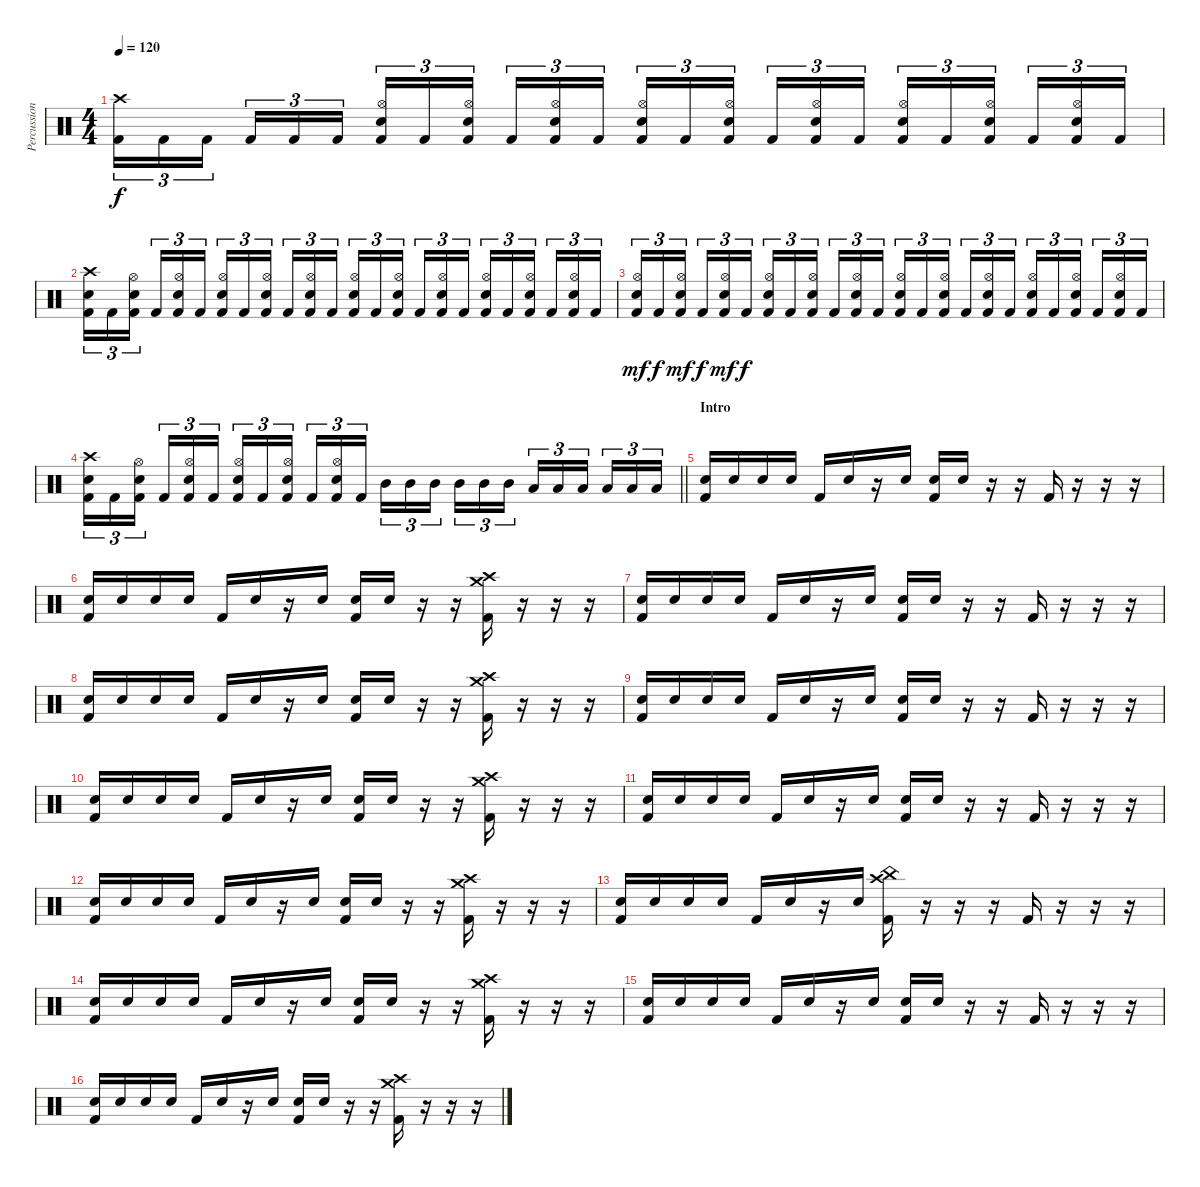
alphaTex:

\track ("Percussion" "Percussion") {instrument percussion}
\staff {score}
\articulation defaults
\ts (4 4)
\tempo 120
\clef neutral
\ks c
("Crash high (hit)" "Kick (hit) 2").16{tu (3 2) dy f} "Kick (hit) 2".16{tu (3 2)} "Kick (hit) 2".16{tu (3 2) beam splitsecondary} "Kick (hit) 2".16{tu (3 2)} "Kick (hit) 2".16{tu (3 2)} "Kick (hit) 2".16{tu (3 2)} ("Hi-Hat (open)" "Snare (hit) 2" "Kick (hit) 2").16{tu (3 2)} "Kick (hit) 2".16{tu (3 2)} ("Hi-Hat (open)" "Snare (hit) 2" "Kick (hit) 2").16{tu (3 2) beam splitsecondary} "Kick (hit) 2".16{tu (3 2)} ("Hi-Hat (open)" "Snare (hit) 2" "Kick (hit) 2").16{tu (3 2)} "Kick (hit) 2".16{tu (3 2)} ("Hi-Hat (open)" "Snare (hit) 2" "Kick (hit) 2").16{tu (3 2)} "Kick (hit) 2".16{tu (3 2)} ("Hi-Hat (open)" "Snare (hit) 2" "Kick (hit) 2").16{tu (3 2) beam splitsecondary} "Kick (hit) 2".16{tu (3 2)} ("Hi-Hat (open)" "Snare (hit) 2" "Kick (hit) 2").16{tu (3 2)} "Kick (hit) 2".16{tu (3 2)} ("Hi-Hat (open)" "Snare (hit) 2" "Kick (hit) 2").16{tu (3 2)} "Kick (hit) 2".16{tu (3 2)} ("Hi-Hat (open)" "Snare (hit) 2" "Kick (hit) 2").16{tu (3 2) beam splitsecondary} "Kick (hit) 2".16{tu (3 2)} ("Hi-Hat (open)" "Snare (hit) 2" "Kick (hit) 2").16{tu (3 2)} "Kick (hit) 2".16{tu (3 2)} |
("Crash high (hit)" "Snare (hit) 2" "Kick (hit) 2").16{tu (3 2)} "Kick (hit) 2".16{tu (3 2)} ("Hi-Hat (open)" "Snare (hit) 2" "Kick (hit) 2").16{tu (3 2) beam splitsecondary} "Kick (hit) 2".16{tu (3 2)} ("Hi-Hat (open)" "Snare (hit) 2" "Kick (hit) 2").16{tu (3 2)} "Kick (hit) 2".16{tu (3 2)} ("Hi-Hat (open)" "Snare (hit) 2" "Kick (hit) 2").16{tu (3 2)} "Kick (hit) 2".16{tu (3 2)} ("Hi-Hat (open)" "Snare (hit) 2" "Kick (hit) 2").16{tu (3 2) beam splitsecondary} "Kick (hit) 2".16{tu (3 2)} ("Hi-Hat (open)" "Snare (hit) 2" "Kick (hit) 2").16{tu (3 2)} "Kick (hit) 2".16{tu (3 2)} ("Hi-Hat (open)" "Snare (hit) 2" "Kick (hit) 2").16{tu (3 2)} "Kick (hit) 2".16{tu (3 2)} ("Hi-Hat (open)" "Snare (hit) 2" "Kick (hit) 2").16{tu (3 2) beam splitsecondary} "Kick (hit) 2".16{tu (3 2)} ("Hi-Hat (open)" "Snare (hit) 2" "Kick (hit) 2").16{tu (3 2)} "Kick (hit) 2".16{tu (3 2)} ("Hi-Hat (open)" "Snare (hit) 2" "Kick (hit) 2").16{tu (3 2)} "Kick (hit) 2".16{tu (3 2)} ("Hi-Hat (open)" "Snare (hit) 2" "Kick (hit) 2").16{tu (3 2) beam splitsecondary} "Kick (hit) 2".16{tu (3 2)} ("Hi-Hat (open)" "Snare (hit) 2" "Kick (hit) 2").16{tu (3 2)} "Kick (hit) 2".16{tu (3 2)} |
("Hi-Hat (open)" "Snare (hit) 2" "Kick (hit) 2").16{tu (3 2) dy mf} "Kick (hit) 2".16{tu (3 2) dy f} ("Hi-Hat (open)" "Snare (hit) 2" "Kick (hit) 2").16{tu (3 2) dy mf beam splitsecondary} "Kick (hit) 2".16{tu (3 2) dy f} ("Hi-Hat (open)" "Snare (hit) 2" "Kick (hit) 2").16{tu (3 2) dy mf} "Kick (hit) 2".16{tu (3 2) dy f} ("Hi-Hat (open)" "Snare (hit) 2" "Kick (hit) 2").16{tu (3 2)} "Kick (hit) 2".16{tu (3 2)} ("Hi-Hat (open)" "Snare (hit) 2" "Kick (hit) 2").16{tu (3 2) beam splitsecondary} "Kick (hit) 2".16{tu (3 2)} ("Hi-Hat (open)" "Snare (hit) 2" "Kick (hit) 2").16{tu (3 2)} "Kick (hit) 2".16{tu (3 2)} ("Hi-Hat (open)" "Snare (hit) 2" "Kick (hit) 2").16{tu (3 2)} "Kick (hit) 2".16{tu (3 2)} ("Hi-Hat (open)" "Snare (hit) 2" "Kick (hit) 2").16{tu (3 2) beam splitsecondary} "Kick (hit) 2".16{tu (3 2)} ("Hi-Hat (open)" "Snare (hit) 2" "Kick (hit) 2").16{tu (3 2)} "Kick (hit) 2".16{tu (3 2)} ("Hi-Hat (open)" "Snare (hit) 2" "Kick (hit) 2").16{tu (3 2)} "Kick (hit) 2".16{tu (3 2)} ("Hi-Hat (open)" "Snare (hit) 2" "Kick (hit) 2").16{tu (3 2) beam splitsecondary} "Kick (hit) 2".16{tu (3 2)} ("Hi-Hat (open)" "Snare (hit) 2" "Kick (hit) 2").16{tu (3 2)} "Kick (hit) 2".16{tu (3 2)} |
\barLineRight lightlight
("Crash high (hit)" "Snare (hit) 2" "Kick (hit) 2").16{tu (3 2)} "Kick (hit) 2".16{tu (3 2)} ("Hi-Hat (open)" "Snare (hit) 2" "Kick (hit) 2").16{tu (3 2) beam splitsecondary} "Kick (hit) 2".16{tu (3 2)} ("Hi-Hat (open)" "Snare (hit) 2" "Kick (hit) 2").16{tu (3 2)} "Kick (hit) 2".16{tu (3 2)} ("Hi-Hat (open)" "Snare (hit) 2" "Kick (hit) 2").16{tu (3 2)} "Kick (hit) 2".16{tu (3 2)} ("Hi-Hat (open)" "Snare (hit) 2" "Kick (hit) 2").16{tu (3 2) beam splitsecondary} "Kick (hit) 2".16{tu (3 2)} ("Hi-Hat (open)" "Snare (hit) 2" "Kick (hit) 2").16{tu (3 2)} "Kick (hit) 2".16{tu (3 2)} "Mid Tom (hit)".16{tu (3 2)} "Mid Tom (hit)".16{tu (3 2)} "Mid Tom (hit)".16{tu (3 2) beam splitsecondary} "Mid Tom (hit)".16{tu (3 2)} "Mid Tom (hit)".16{tu (3 2)} "Mid Tom (hit)".16{tu (3 2)} "Low Tom (hit)".16{tu (3 2)} "Low Tom (hit)".16{tu (3 2)} "Low Tom (hit)".16{tu (3 2) beam splitsecondary} "Low Tom (hit)".16{tu (3 2)} "Low Tom (hit)".16{tu (3 2)} "Low Tom (hit)".16{tu (3 2)} |
\section ("" "Intro")
("Snare (hit) 2" "Kick (hit) 2").16 "Snare (hit) 2".16 "Snare (hit) 2".16 "Snare (hit) 2".16 "Kick (hit) 2".16 "Snare (hit) 2".16 r.16 "Snare (hit) 2".16 ("Snare (hit) 2" "Kick (hit) 2").16 "Snare (hit) 2".16 r.16 r.16 "Kick (hit) 2".16 r.16 r.16 r.16 |
("Snare (hit) 2" "Kick (hit) 2").16 "Snare (hit) 2".16 "Snare (hit) 2".16 "Snare (hit) 2".16 "Kick (hit) 2".16 "Snare (hit) 2".16 r.16 "Snare (hit) 2".16 ("Snare (hit) 2" "Kick (hit) 2").16 "Snare (hit) 2".16 r.16 r.16 ("Crash high (hit)" "Crash medium (hit)" "Kick (hit) 2").16 r.16 r.16 r.16 |
("Snare (hit) 2" "Kick (hit) 2").16 "Snare (hit) 2".16 "Snare (hit) 2".16 "Snare (hit) 2".16 "Kick (hit) 2".16 "Snare (hit) 2".16 r.16 "Snare (hit) 2".16 ("Snare (hit) 2" "Kick (hit) 2").16 "Snare (hit) 2".16 r.16 r.16 "Kick (hit) 2".16 r.16 r.16 r.16 |
("Snare (hit) 2" "Kick (hit) 2").16 "Snare (hit) 2".16 "Snare (hit) 2".16 "Snare (hit) 2".16 "Kick (hit) 2".16 "Snare (hit) 2".16 r.16 "Snare (hit) 2".16 ("Snare (hit) 2" "Kick (hit) 2").16 "Snare (hit) 2".16 r.16 r.16 ("Crash high (hit)" "Crash medium (hit)" "Kick (hit) 2").16 r.16 r.16 r.16 |
("Snare (hit) 2" "Kick (hit) 2").16 "Snare (hit) 2".16 "Snare (hit) 2".16 "Snare (hit) 2".16 "Kick (hit) 2".16 "Snare (hit) 2".16 r.16 "Snare (hit) 2".16 ("Snare (hit) 2" "Kick (hit) 2").16 "Snare (hit) 2".16 r.16 r.16 "Kick (hit) 2".16 r.16 r.16 r.16 |
("Snare (hit) 2" "Kick (hit) 2").16 "Snare (hit) 2".16 "Snare (hit) 2".16 "Snare (hit) 2".16 "Kick (hit) 2".16 "Snare (hit) 2".16 r.16 "Snare (hit) 2".16 ("Snare (hit) 2" "Kick (hit) 2").16 "Snare (hit) 2".16 r.16 r.16 ("Crash high (hit)" "Crash medium (hit)" "Kick (hit) 2").16 r.16 r.16 r.16 |
("Snare (hit) 2" "Kick (hit) 2").16 "Snare (hit) 2".16 "Snare (hit) 2".16 "Snare (hit) 2".16 "Kick (hit) 2".16 "Snare (hit) 2".16 r.16 "Snare (hit) 2".16 ("Snare (hit) 2" "Kick (hit) 2").16 "Snare (hit) 2".16 r.16 r.16 "Kick (hit) 2".16 r.16 r.16 r.16 |
("Snare (hit) 2" "Kick (hit) 2").16 "Snare (hit) 2".16 "Snare (hit) 2".16 "Snare (hit) 2".16 "Kick (hit) 2".16 "Snare (hit) 2".16 r.16 "Snare (hit) 2".16 ("Snare (hit) 2" "Kick (hit) 2").16 "Snare (hit) 2".16 r.16 r.16 ("Crash high (hit)" "Crash medium (hit)" "Kick (hit) 2").16 r.16 r.16 r.16 |
("Snare (hit) 2" "Kick (hit) 2").16 "Snare (hit) 2".16 "Snare (hit) 2".16 "Snare (hit) 2".16 "Kick (hit) 2".16 "Snare (hit) 2".16 r.16 "Snare (hit) 2".16 ("Crash high (hit)" "China (hit)" "Kick (hit) 2").16 r.16 r.16 r.16 "Kick (hit) 2".16 r.16 r.16 r.16 |
("Snare (hit) 2" "Kick (hit) 2").16 "Snare (hit) 2".16 "Snare (hit) 2".16 "Snare (hit) 2".16 "Kick (hit) 2".16 "Snare (hit) 2".16 r.16 "Snare (hit) 2".16 ("Snare (hit) 2" "Kick (hit) 2").16 "Snare (hit) 2".16 r.16 r.16 ("Crash high (hit)" "Crash medium (hit)" "Kick (hit) 2").16 r.16 r.16 r.16 |
("Snare (hit) 2" "Kick (hit) 2").16 "Snare (hit) 2".16 "Snare (hit) 2".16 "Snare (hit) 2".16 "Kick (hit) 2".16 "Snare (hit) 2".16 r.16 "Snare (hit) 2".16 ("Snare (hit) 2" "Kick (hit) 2").16 "Snare (hit) 2".16 r.16 r.16 "Kick (hit) 2".16 r.16 r.16 r.16 |
("Snare (hit) 2" "Kick (hit) 2").16 "Snare (hit) 2".16 "Snare (hit) 2".16 "Snare (hit) 2".16 "Kick (hit) 2".16 "Snare (hit) 2".16 r.16 "Snare (hit) 2".16 ("Snare (hit) 2" "Kick (hit) 2").16 "Snare (hit) 2".16 r.16 r.16 ("Crash high (hit)" "Crash medium (hit)" "Kick (hit) 2").16 r.16 r.16 r.16
